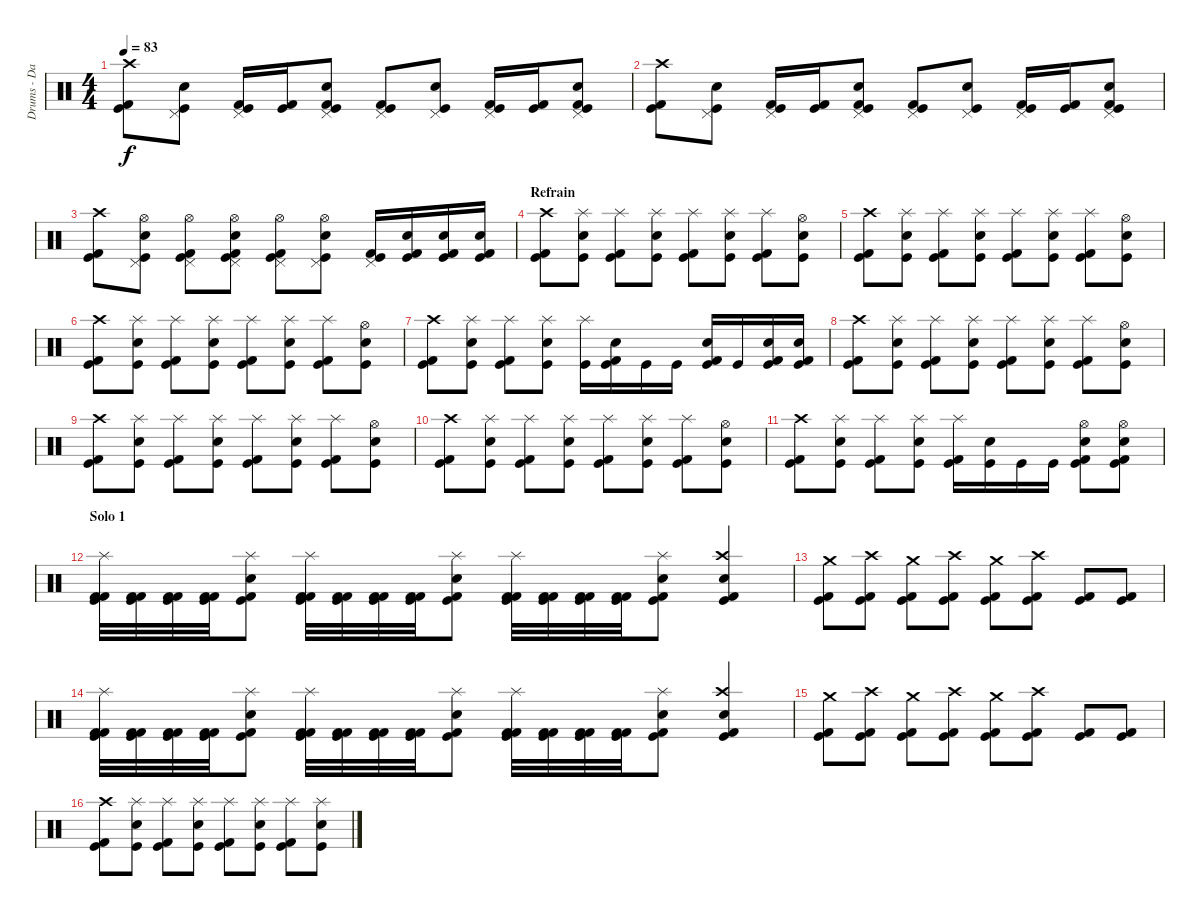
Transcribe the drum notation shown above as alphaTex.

\track ("Drums - Daniel Zimmermann" "Drums - Da") {instrument percussion}
\staff {score}
\articulation defaults
\ts (4 4)
\tempo 83
\clef neutral
\ks c
("Kick (hit)" "Kick (hit) 2" "Crash high (hit)").8{dy f} ("Kick (hit)" "Electric Snare (hit)" "Pedal Hi-Hat (hit)").8 ("Kick (hit)" "Kick (hit) 2" "Pedal Hi-Hat (hit)").16 ("Kick (hit)" "Kick (hit) 2").16 ("Kick (hit)" "Kick (hit) 2" "Electric Snare (hit)" "Pedal Hi-Hat (hit)").8 ("Kick (hit)" "Kick (hit) 2" "Pedal Hi-Hat (hit)").8 ("Kick (hit)" "Electric Snare (hit)" "Pedal Hi-Hat (hit)").8 ("Kick (hit)" "Kick (hit) 2" "Pedal Hi-Hat (hit)").16 ("Kick (hit)" "Kick (hit) 2").16 ("Kick (hit)" "Kick (hit) 2" "Electric Snare (hit)" "Pedal Hi-Hat (hit)").8 |
("Kick (hit)" "Kick (hit) 2" "Crash high (hit)").8 ("Kick (hit)" "Electric Snare (hit)" "Pedal Hi-Hat (hit)").8 ("Kick (hit)" "Kick (hit) 2" "Pedal Hi-Hat (hit)").16 ("Kick (hit)" "Kick (hit) 2").16 ("Kick (hit)" "Kick (hit) 2" "Electric Snare (hit)" "Pedal Hi-Hat (hit)").8 ("Kick (hit)" "Kick (hit) 2" "Pedal Hi-Hat (hit)").8 ("Kick (hit)" "Electric Snare (hit)" "Pedal Hi-Hat (hit)").8 ("Kick (hit)" "Kick (hit) 2" "Pedal Hi-Hat (hit)").16 ("Kick (hit)" "Kick (hit) 2").16 ("Kick (hit)" "Kick (hit) 2" "Electric Snare (hit)" "Pedal Hi-Hat (hit)").8 |
("Kick (hit)" "Kick (hit) 2" "Crash high (hit)").8 ("Kick (hit)" "Electric Snare (hit)" "Pedal Hi-Hat (hit)" "Hi-Hat (open)").8 ("Kick (hit)" "Kick (hit) 2" "Pedal Hi-Hat (hit)" "Hi-Hat (open)").8 ("Kick (hit)" "Kick (hit) 2" "Electric Snare (hit)" "Pedal Hi-Hat (hit)" "Hi-Hat (open)").8 ("Kick (hit)" "Kick (hit) 2" "Pedal Hi-Hat (hit)" "Hi-Hat (open)").8 ("Kick (hit)" "Electric Snare (hit)" "Pedal Hi-Hat (hit)" "Hi-Hat (open)").8 ("Kick (hit)" "Kick (hit) 2" "Pedal Hi-Hat (hit)").16 ("Kick (hit)" "Kick (hit) 2" "Electric Snare (hit)").16 ("Kick (hit)" "Kick (hit) 2" "Electric Snare (hit)").16 ("Kick (hit)" "Kick (hit) 2" "Electric Snare (hit)").16 |
\section ("" "Refrain")
("Kick (hit)" "Kick (hit) 2" "Crash high (hit)").8 ("Kick (hit)" "Electric Snare (hit)" "Splash (hit)").8 ("Kick (hit)" "Kick (hit) 2" "Splash (hit)").8 ("Kick (hit)" "Electric Snare (hit)" "Splash (hit)").8 ("Kick (hit)" "Kick (hit) 2" "Splash (hit)").8 ("Kick (hit)" "Electric Snare (hit)" "Splash (hit)").8 ("Kick (hit)" "Kick (hit) 2" "Splash (hit)").8 ("Kick (hit)" "Electric Snare (hit)" "Hi-Hat (open)").8 |
("Kick (hit)" "Kick (hit) 2" "Crash high (hit)").8 ("Kick (hit)" "Electric Snare (hit)" "Splash (hit)").8 ("Kick (hit)" "Kick (hit) 2" "Splash (hit)").8 ("Kick (hit)" "Electric Snare (hit)" "Splash (hit)").8 ("Kick (hit)" "Kick (hit) 2" "Splash (hit)").8 ("Kick (hit)" "Electric Snare (hit)" "Splash (hit)").8 ("Kick (hit)" "Kick (hit) 2" "Splash (hit)").8 ("Kick (hit)" "Electric Snare (hit)" "Hi-Hat (open)").8 |
("Kick (hit)" "Kick (hit) 2" "Crash high (hit)").8 ("Kick (hit)" "Electric Snare (hit)" "Splash (hit)").8 ("Kick (hit)" "Kick (hit) 2" "Splash (hit)").8 ("Kick (hit)" "Electric Snare (hit)" "Splash (hit)").8 ("Kick (hit)" "Kick (hit) 2" "Splash (hit)").8 ("Kick (hit)" "Electric Snare (hit)" "Splash (hit)").8 ("Kick (hit)" "Kick (hit) 2" "Splash (hit)").8 ("Kick (hit)" "Electric Snare (hit)" "Hi-Hat (open)").8 |
("Kick (hit)" "Kick (hit) 2" "Crash high (hit)").8 ("Kick (hit)" "Electric Snare (hit)" "Splash (hit)").8 ("Kick (hit)" "Kick (hit) 2" "Splash (hit)").8 ("Kick (hit)" "Electric Snare (hit)" "Splash (hit)").8 ("Kick (hit)" "Splash (hit)").16 ("Kick (hit)" "Kick (hit) 2" "Electric Snare (hit)").16 "Kick (hit)".16 "Kick (hit)".16 ("Kick (hit)" "Kick (hit) 2" "Electric Snare (hit)").16 "Kick (hit)".16 ("Kick (hit)" "Kick (hit) 2" "Electric Snare (hit)").16 ("Kick (hit)" "Kick (hit) 2" "Electric Snare (hit)").16 |
("Kick (hit)" "Kick (hit) 2" "Crash high (hit)").8 ("Kick (hit)" "Electric Snare (hit)" "Splash (hit)").8 ("Kick (hit)" "Kick (hit) 2" "Splash (hit)").8 ("Kick (hit)" "Electric Snare (hit)" "Splash (hit)").8 ("Kick (hit)" "Kick (hit) 2" "Splash (hit)").8 ("Kick (hit)" "Electric Snare (hit)" "Splash (hit)").8 ("Kick (hit)" "Kick (hit) 2" "Splash (hit)").8 ("Kick (hit)" "Electric Snare (hit)" "Hi-Hat (open)").8 |
("Kick (hit)" "Kick (hit) 2" "Crash high (hit)").8 ("Kick (hit)" "Electric Snare (hit)" "Splash (hit)").8 ("Kick (hit)" "Kick (hit) 2" "Splash (hit)").8 ("Kick (hit)" "Electric Snare (hit)" "Splash (hit)").8 ("Kick (hit)" "Kick (hit) 2" "Splash (hit)").8 ("Kick (hit)" "Electric Snare (hit)" "Splash (hit)").8 ("Kick (hit)" "Kick (hit) 2" "Splash (hit)").8 ("Kick (hit)" "Electric Snare (hit)" "Hi-Hat (open)").8 |
("Kick (hit)" "Kick (hit) 2" "Crash high (hit)").8 ("Kick (hit)" "Electric Snare (hit)" "Splash (hit)").8 ("Kick (hit)" "Kick (hit) 2" "Splash (hit)").8 ("Kick (hit)" "Electric Snare (hit)" "Splash (hit)").8 ("Kick (hit)" "Kick (hit) 2" "Splash (hit)").8 ("Kick (hit)" "Electric Snare (hit)" "Splash (hit)").8 ("Kick (hit)" "Kick (hit) 2" "Splash (hit)").8 ("Kick (hit)" "Electric Snare (hit)" "Hi-Hat (open)").8 |
("Kick (hit)" "Kick (hit) 2" "Crash high (hit)").8 ("Kick (hit)" "Electric Snare (hit)" "Splash (hit)").8 ("Kick (hit)" "Kick (hit) 2" "Splash (hit)").8 ("Kick (hit)" "Electric Snare (hit)" "Splash (hit)").8 ("Kick (hit)" "Kick (hit) 2" "Splash (hit)").16 ("Kick (hit)" "Electric Snare (hit)").16 "Kick (hit)".16 "Kick (hit)".16 ("Kick (hit)" "Kick (hit) 2" "Electric Snare (hit)" "Hi-Hat (open)").8 ("Kick (hit)" "Kick (hit) 2" "Electric Snare (hit)" "Hi-Hat (open)").8 |
\section ("" "Solo 1")
("Kick (hit)" "Kick (hit) 2" "Kick (hit) 2" "Splash (hit)").32 ("Kick (hit)" "Kick (hit) 2" "Kick (hit) 2").32 ("Kick (hit)" "Kick (hit) 2" "Kick (hit) 2").32 ("Kick (hit)" "Kick (hit) 2" "Kick (hit) 2").32 ("Kick (hit)" "Kick (hit) 2" "Electric Snare (hit)" "Splash (hit)").8 ("Kick (hit)" "Kick (hit) 2" "Kick (hit) 2" "Splash (hit)").32 ("Kick (hit)" "Kick (hit) 2" "Kick (hit) 2").32 ("Kick (hit)" "Kick (hit) 2" "Kick (hit) 2").32 ("Kick (hit)" "Kick (hit) 2" "Kick (hit) 2").32 ("Kick (hit)" "Kick (hit) 2" "Electric Snare (hit)" "Splash (hit)").8 ("Kick (hit)" "Kick (hit) 2" "Kick (hit) 2" "Splash (hit)").32 ("Kick (hit)" "Kick (hit) 2" "Kick (hit) 2").32 ("Kick (hit)" "Kick (hit) 2" "Kick (hit) 2").32 ("Kick (hit)" "Kick (hit) 2" "Kick (hit) 2").32 ("Kick (hit)" "Kick (hit) 2" "Electric Snare (hit)" "Splash (hit)").8 ("Kick (hit)" "Kick (hit) 2" "Electric Snare (hit)" "Crash high (hit)").4 |
("Kick (hit)" "Kick (hit) 2" "Crash medium (hit)").8 ("Kick (hit)" "Kick (hit) 2" "Crash high (hit)").8 ("Kick (hit)" "Kick (hit) 2" "Crash medium (hit)").8 ("Kick (hit)" "Kick (hit) 2" "Crash high (hit)").8 ("Kick (hit)" "Kick (hit) 2" "Crash medium (hit)").8 ("Kick (hit)" "Kick (hit) 2" "Crash high (hit)").8 ("Kick (hit)" "Kick (hit) 2").8 ("Kick (hit)" "Kick (hit) 2").8 |
("Kick (hit)" "Kick (hit) 2" "Kick (hit) 2" "Splash (hit)").32 ("Kick (hit)" "Kick (hit) 2" "Kick (hit) 2").32 ("Kick (hit)" "Kick (hit) 2" "Kick (hit) 2").32 ("Kick (hit)" "Kick (hit) 2" "Kick (hit) 2").32 ("Kick (hit)" "Kick (hit) 2" "Electric Snare (hit)" "Splash (hit)").8 ("Kick (hit)" "Kick (hit) 2" "Kick (hit) 2" "Splash (hit)").32 ("Kick (hit)" "Kick (hit) 2" "Kick (hit) 2").32 ("Kick (hit)" "Kick (hit) 2" "Kick (hit) 2").32 ("Kick (hit)" "Kick (hit) 2" "Kick (hit) 2").32 ("Kick (hit)" "Kick (hit) 2" "Electric Snare (hit)" "Splash (hit)").8 ("Kick (hit)" "Kick (hit) 2" "Kick (hit) 2" "Splash (hit)").32 ("Kick (hit)" "Kick (hit) 2" "Kick (hit) 2").32 ("Kick (hit)" "Kick (hit) 2" "Kick (hit) 2").32 ("Kick (hit)" "Kick (hit) 2" "Kick (hit) 2").32 ("Kick (hit)" "Kick (hit) 2" "Electric Snare (hit)" "Splash (hit)").8 ("Kick (hit)" "Kick (hit) 2" "Electric Snare (hit)" "Crash high (hit)").4 |
("Kick (hit)" "Kick (hit) 2" "Crash medium (hit)").8 ("Kick (hit)" "Kick (hit) 2" "Crash high (hit)").8 ("Kick (hit)" "Kick (hit) 2" "Crash medium (hit)").8 ("Kick (hit)" "Kick (hit) 2" "Crash high (hit)").8 ("Kick (hit)" "Kick (hit) 2" "Crash medium (hit)").8 ("Kick (hit)" "Kick (hit) 2" "Crash high (hit)").8 ("Kick (hit)" "Kick (hit) 2").8 ("Kick (hit)" "Kick (hit) 2").8 |
("Kick (hit)" "Kick (hit) 2" "Crash high (hit)").8 ("Kick (hit)" "Electric Snare (hit)" "Splash (hit)").8 ("Kick (hit)" "Kick (hit) 2" "Splash (hit)").8 ("Kick (hit)" "Electric Snare (hit)" "Splash (hit)").8 ("Kick (hit)" "Kick (hit) 2" "Splash (hit)").8 ("Kick (hit)" "Electric Snare (hit)" "Splash (hit)").8 ("Kick (hit)" "Kick (hit) 2" "Splash (hit)").8 ("Kick (hit)" "Electric Snare (hit)" "Splash (hit)").8
